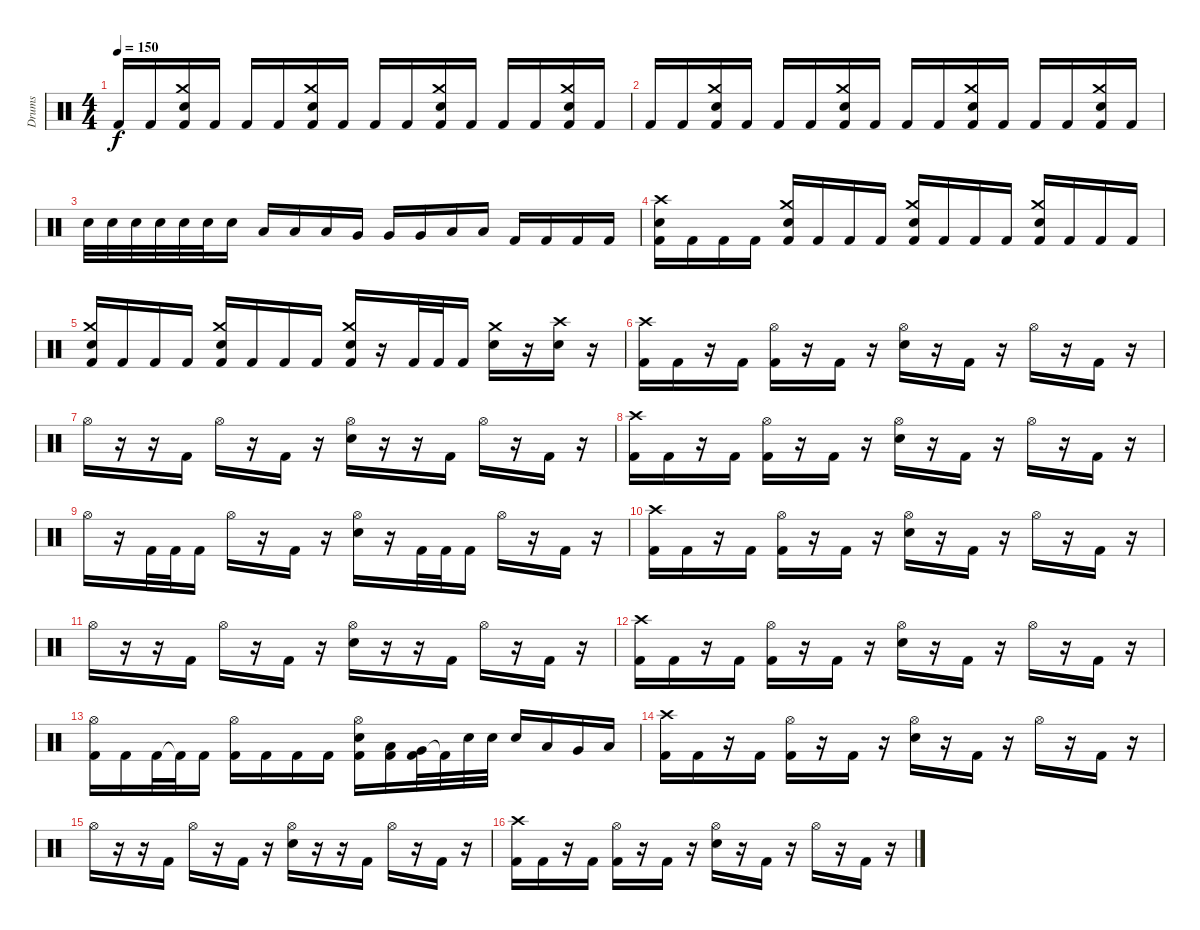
\track ("Drums" "Drums") {instrument percussion}
\staff {score}
\articulation defaults
\ts (4 4)
\tempo 150
\clef neutral
\ks c "Kick (hit) 2".16{dy f} "Kick (hit) 2".16
("Crash medium (hit)" "Snare (hit) 2" "Kick (hit) 2").16 "Kick (hit) 2".16 "Kick (hit) 2".16 "Kick (hit) 2".16 ("Crash medium (hit)" "Snare (hit) 2" "Kick (hit) 2").16 "Kick (hit) 2".16 "Kick (hit) 2".16 "Kick (hit) 2".16 ("Crash medium (hit)" "Snare (hit) 2" "Kick (hit) 2").16 "Kick (hit) 2".16 "Kick (hit) 2".16 "Kick (hit) 2".16 ("Crash medium (hit)" "Snare (hit) 2" "Kick (hit) 2").16 "Kick (hit) 2".16 |
"Kick (hit) 2".16 "Kick (hit) 2".16 ("Crash medium (hit)" "Snare (hit) 2" "Kick (hit) 2").16 "Kick (hit) 2".16 "Kick (hit) 2".16 "Kick (hit) 2".16 ("Crash medium (hit)" "Snare (hit) 2" "Kick (hit) 2").16 "Kick (hit) 2".16 "Kick (hit) 2".16 "Kick (hit) 2".16 ("Crash medium (hit)" "Snare (hit) 2" "Kick (hit) 2").16 "Kick (hit) 2".16 "Kick (hit) 2".16 "Kick (hit) 2".16 ("Crash medium (hit)" "Snare (hit) 2" "Kick (hit) 2").16 "Kick (hit) 2".16 |
"Snare (hit) 2".32 "Snare (hit) 2".32 "Snare (hit) 2".32 "Snare (hit) 2".32 "Snare (hit) 2".32 "Snare (hit) 2".32 "Snare (hit) 2".16 "Low Tom (hit)".16 "Low Tom (hit)".16 "Low Tom (hit)".16 "Very Low Tom (hit)".16 "Very Low Tom (hit)".16 "Very Low Tom (hit)".16 "Low Floor Tom (hit)".16 "Low Floor Tom (hit)".16 "Kick (hit) 2".16 "Kick (hit) 2".16 "Kick (hit) 2".16 "Kick (hit) 2".16 |
("Crash high (hit)" "Snare (hit) 2" "Kick (hit) 2").16 "Kick (hit) 2".16 "Kick (hit) 2".16 "Kick (hit) 2".16 ("Crash medium (hit)" "Snare (hit) 2" "Kick (hit) 2").16 "Kick (hit) 2".16 "Kick (hit) 2".16 "Kick (hit) 2".16 ("Crash medium (hit)" "Snare (hit) 2" "Kick (hit) 2").16 "Kick (hit) 2".16 "Kick (hit) 2".16 "Kick (hit) 2".16 ("Crash medium (hit)" "Snare (hit) 2" "Kick (hit) 2").16 "Kick (hit) 2".16 "Kick (hit) 2".16 "Kick (hit) 2".16 |
("Crash medium (hit)" "Snare (hit) 2" "Kick (hit) 2").16 "Kick (hit) 2".16 "Kick (hit) 2".16 "Kick (hit) 2".16 ("Crash medium (hit)" "Snare (hit) 2" "Kick (hit) 2").16 "Kick (hit) 2".16 "Kick (hit) 2".16 "Kick (hit) 2".16 ("Crash medium (hit)" "Snare (hit) 2" "Kick (hit) 2").16 r.16 "Kick (hit) 2".32 "Kick (hit) 2".32 "Kick (hit) 2".16 ("Crash medium (hit)" "Snare (hit) 2").16 r.16 ("Crash high (hit)" "Snare (hit) 2").16 r.16 |
("Crash high (hit)" "Kick (hit) 2").16 "Kick (hit) 2".16 r.16 "Kick (hit) 2".16 ("Hi-Hat (open)" "Kick (hit) 2").16 r.16 "Kick (hit) 2".16 r.16 ("Hi-Hat (open)" "Snare (hit) 2").16 r.16 "Kick (hit) 2".16 r.16 "Hi-Hat (open)".16 r.16 "Kick (hit) 2".16 r.16 |
"Hi-Hat (open)".16 r.16 r.16 "Kick (hit) 2".16 "Hi-Hat (open)".16 r.16 "Kick (hit) 2".16 r.16 ("Hi-Hat (open)" "Snare (hit) 2").16 r.16 r.16 "Kick (hit) 2".16 "Hi-Hat (open)".16 r.16 "Kick (hit) 2".16 r.16 |
("Crash high (hit)" "Kick (hit) 2").16 "Kick (hit) 2".16 r.16 "Kick (hit) 2".16 ("Hi-Hat (open)" "Kick (hit) 2").16 r.16 "Kick (hit) 2".16 r.16 ("Hi-Hat (open)" "Snare (hit) 2").16 r.16 "Kick (hit) 2".16 r.16 "Hi-Hat (open)".16 r.16 "Kick (hit) 2".16 r.16 |
"Hi-Hat (open)".16 r.16 "Kick (hit) 2".32 "Kick (hit) 2".32 "Kick (hit) 2".16 "Hi-Hat (open)".16 r.16 "Kick (hit) 2".16 r.16 ("Hi-Hat (open)" "Snare (hit) 2").16 r.16 "Kick (hit) 2".32 "Kick (hit) 2".32 "Kick (hit) 2".16 "Hi-Hat (open)".16 r.16 "Kick (hit) 2".16 r.16 |
("Crash high (hit)" "Kick (hit) 2").16 "Kick (hit) 2".16 r.16 "Kick (hit) 2".16 ("Hi-Hat (open)" "Kick (hit) 2").16 r.16 "Kick (hit) 2".16 r.16 ("Hi-Hat (open)" "Snare (hit) 2").16 r.16 "Kick (hit) 2".16 r.16 "Hi-Hat (open)".16 r.16 "Kick (hit) 2".16 r.16 |
"Hi-Hat (open)".16 r.16 r.16 "Kick (hit) 2".16 "Hi-Hat (open)".16 r.16 "Kick (hit) 2".16 r.16 ("Hi-Hat (open)" "Snare (hit) 2").16 r.16 r.16 "Kick (hit) 2".16 "Hi-Hat (open)".16 r.16 "Kick (hit) 2".16 r.16 |
("Crash high (hit)" "Kick (hit) 2").16 "Kick (hit) 2".16 r.16 "Kick (hit) 2".16 ("Hi-Hat (open)" "Kick (hit) 2").16 r.16 "Kick (hit) 2".16 r.16 ("Hi-Hat (open)" "Snare (hit) 2").16 r.16 "Kick (hit) 2".16 r.16 "Hi-Hat (open)".16 r.16 "Kick (hit) 2".16 r.16 |
("Hi-Hat (open)" "Kick (hit) 2").16 "Kick (hit) 2".16 "Kick (hit) 2".32 "Kick (hit) 2"{t}.32 "Kick (hit) 2".16 ("Hi-Hat (open)" "Kick (hit) 2").16 "Kick (hit) 2".16 "Kick (hit) 2".16 "Kick (hit) 2".16 ("Hi-Hat (open)" "Snare (hit) 2" "Kick (hit) 2").16 ("Low Tom (hit)" "Kick (hit) 2").16 ("Very Low Tom (hit)" "Kick (hit) 2").32 "Kick (hit) 2"{t}.32 "Snare (hit) 2".32 "Snare (hit) 2".32 "Snare (hit) 2".16 "Low Tom (hit)".16 "Very Low Tom (hit)".16 "Low Floor Tom (hit)".16 |
("Crash high (hit)" "Kick (hit) 2").16 "Kick (hit) 2".16 r.16 "Kick (hit) 2".16 ("Hi-Hat (open)" "Kick (hit) 2").16 r.16 "Kick (hit) 2".16 r.16 ("Hi-Hat (open)" "Snare (hit) 2").16 r.16 "Kick (hit) 2".16 r.16 "Hi-Hat (open)".16 r.16 "Kick (hit) 2".16 r.16 |
"Hi-Hat (open)".16 r.16 r.16 "Kick (hit) 2".16 "Hi-Hat (open)".16 r.16 "Kick (hit) 2".16 r.16 ("Hi-Hat (open)" "Snare (hit) 2").16 r.16 r.16 "Kick (hit) 2".16 "Hi-Hat (open)".16 r.16 "Kick (hit) 2".16 r.16 |
("Crash high (hit)" "Kick (hit) 2").16 "Kick (hit) 2".16 r.16 "Kick (hit) 2".16 ("Hi-Hat (open)" "Kick (hit) 2").16 r.16 "Kick (hit) 2".16 r.16 ("Hi-Hat (open)" "Snare (hit) 2").16 r.16 "Kick (hit) 2".16 r.16 "Hi-Hat (open)".16 r.16 "Kick (hit) 2".16 r.16
